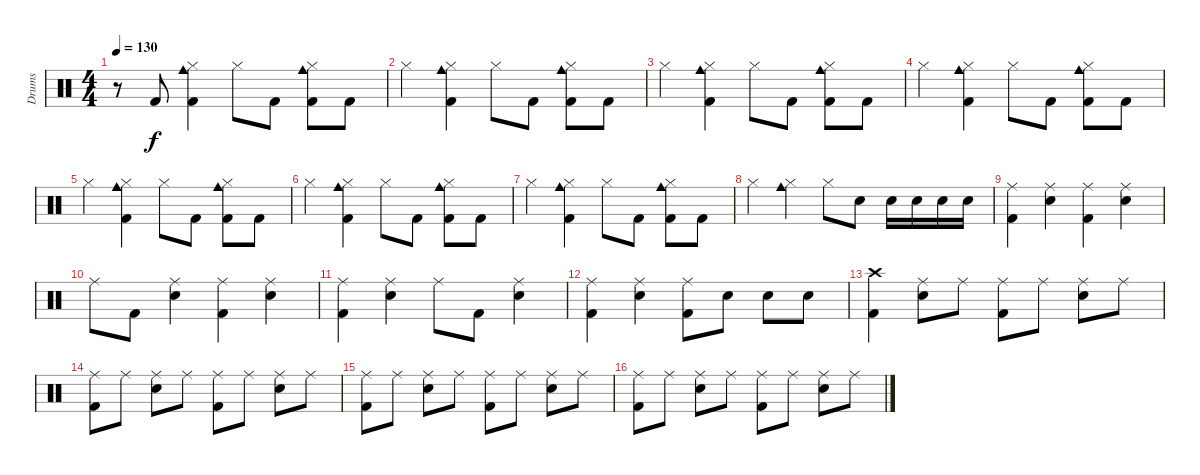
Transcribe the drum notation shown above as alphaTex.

\track ("Drums" "Drums") {instrument percussion}
\staff {score}
\articulation defaults
\ts (4 4)
\tempo 130
\clef neutral
\ks c
r.8{dy f} "Kick (hit) 2".8 ("Hi-Hat (closed)" "Cowbell medium (hit)" "Kick (hit) 2").4 "Hi-Hat (closed)".8 "Kick (hit) 2".8 ("Hi-Hat (closed)" "Cowbell medium (hit)" "Kick (hit) 2").8 "Kick (hit) 2".8 |
"Hi-Hat (closed)".4 ("Hi-Hat (closed)" "Cowbell medium (hit)" "Kick (hit) 2").4 "Hi-Hat (closed)".8 "Kick (hit) 2".8 ("Hi-Hat (closed)" "Cowbell medium (hit)" "Kick (hit) 2").8 "Kick (hit) 2".8 |
"Hi-Hat (closed)".4 ("Hi-Hat (closed)" "Cowbell medium (hit)" "Kick (hit) 2").4 "Hi-Hat (closed)".8 "Kick (hit) 2".8 ("Hi-Hat (closed)" "Cowbell medium (hit)" "Kick (hit) 2").8 "Kick (hit) 2".8 |
"Hi-Hat (closed)".4 ("Hi-Hat (closed)" "Cowbell medium (hit)" "Kick (hit) 2").4 "Hi-Hat (closed)".8 "Kick (hit) 2".8 ("Hi-Hat (closed)" "Cowbell medium (hit)" "Kick (hit) 2").8 "Kick (hit) 2".8 |
"Hi-Hat (closed)".4 ("Hi-Hat (closed)" "Cowbell medium (hit)" "Kick (hit) 2").4 "Hi-Hat (closed)".8 "Kick (hit) 2".8 ("Hi-Hat (closed)" "Cowbell medium (hit)" "Kick (hit) 2").8 "Kick (hit) 2".8 |
"Hi-Hat (closed)".4 ("Hi-Hat (closed)" "Cowbell medium (hit)" "Kick (hit) 2").4 "Hi-Hat (closed)".8 "Kick (hit) 2".8 ("Hi-Hat (closed)" "Cowbell medium (hit)" "Kick (hit) 2").8 "Kick (hit) 2".8 |
"Hi-Hat (closed)".4 ("Hi-Hat (closed)" "Cowbell medium (hit)" "Kick (hit) 2").4 "Hi-Hat (closed)".8 "Kick (hit) 2".8 ("Hi-Hat (closed)" "Cowbell medium (hit)" "Kick (hit) 2").8 "Kick (hit) 2".8 |
"Hi-Hat (closed)".4 ("Hi-Hat (closed)" "Cowbell medium (hit)").4 "Hi-Hat (closed)".8 "Electric Snare (hit)".8 "Electric Snare (hit)".16 "Electric Snare (hit)".16 "Electric Snare (hit)".16 "Electric Snare (hit)".16 |
("Ride (middle)" "Kick (hit) 2").4 ("Ride (middle)" "Electric Snare (hit)").4 ("Ride (middle)" "Kick (hit) 2").4 ("Ride (middle)" "Electric Snare (hit)").4 |
"Ride (middle)".8 "Kick (hit) 2".8 ("Ride (middle)" "Electric Snare (hit)").4 ("Ride (middle)" "Kick (hit) 2").4 ("Ride (middle)" "Electric Snare (hit)").4 |
("Ride (middle)" "Kick (hit) 2").4 ("Ride (middle)" "Electric Snare (hit)").4 "Ride (middle)".8 "Kick (hit) 2".8 ("Ride (middle)" "Electric Snare (hit)").4 |
("Ride (middle)" "Kick (hit) 2").4 ("Ride (middle)" "Electric Snare (hit)").4 ("Ride (middle)" "Kick (hit) 2").8 "Electric Snare (hit)".8 "Electric Snare (hit)".8 "Electric Snare (hit)".8 |
("Crash high (hit)" "Kick (hit) 2").4 ("Ride (middle)" "Electric Snare (hit)").8 "Ride (middle)".8 ("Ride (middle)" "Kick (hit) 2").8 "Ride (middle)".8 ("Ride (middle)" "Electric Snare (hit)").8 "Ride (middle)".8 |
("Ride (middle)" "Kick (hit) 2").8 "Ride (middle)".8 ("Ride (middle)" "Electric Snare (hit)").8 "Ride (middle)".8 ("Ride (middle)" "Kick (hit) 2").8 "Ride (middle)".8 ("Ride (middle)" "Electric Snare (hit)").8 "Ride (middle)".8 |
("Ride (middle)" "Kick (hit) 2").8 "Ride (middle)".8 ("Ride (middle)" "Electric Snare (hit)").8 "Ride (middle)".8 ("Ride (middle)" "Kick (hit) 2").8 "Ride (middle)".8 ("Ride (middle)" "Electric Snare (hit)").8 "Ride (middle)".8 |
("Ride (middle)" "Kick (hit) 2").8 "Ride (middle)".8 ("Ride (middle)" "Electric Snare (hit)").8 "Ride (middle)".8 ("Ride (middle)" "Kick (hit) 2").8 "Ride (middle)".8 ("Ride (middle)" "Electric Snare (hit)").8 "Ride (middle)".8
